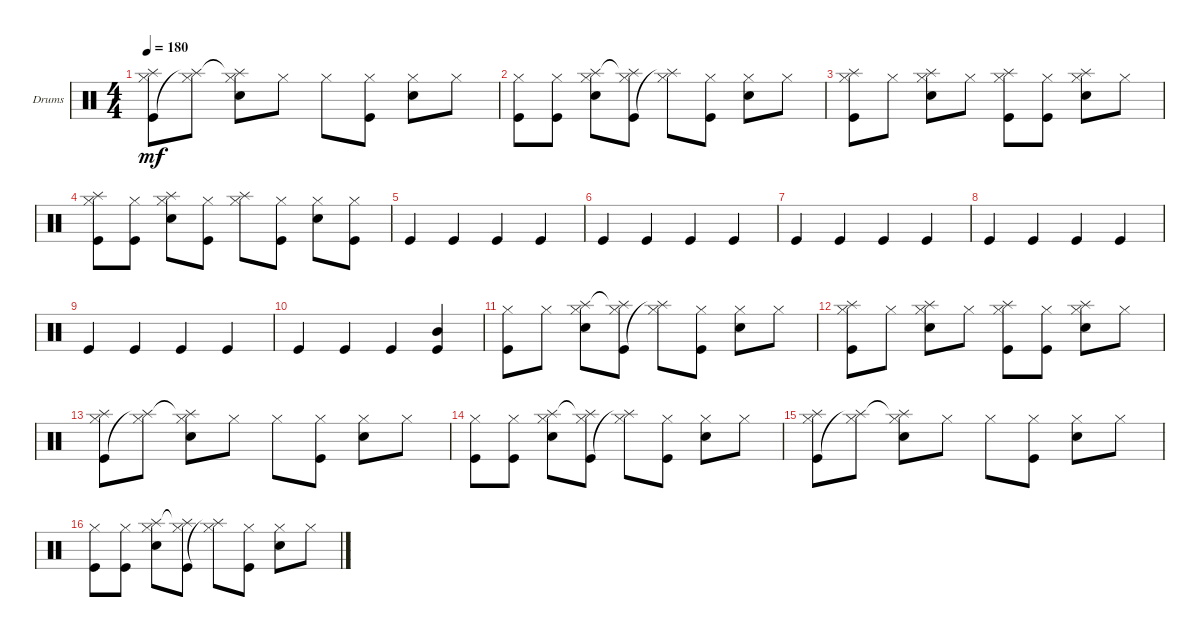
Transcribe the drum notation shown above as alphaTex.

\bracketExtendMode groupsimilarinstruments
\firstSystemTrackNameOrientation horizontal
\otherSystemsTrackNameOrientation horizontal
\track ("Drumkit" "Drums") {instrument percussion}
\staff {score}
\articulation defaults
\ts (4 4)
\tempo 180
\clef neutral
\ks c
("Hi-Hat (closed)" "Kick (hit)" "Splash (hit)").8{dy mf} ("Hi-Hat (closed)" "Splash (hit)"{t}).8 ("Hi-Hat (closed)" "Splash (hit)"{t} "Snare (hit) 2").8 "Hi-Hat (closed)".8 "Hi-Hat (closed)".8 ("Hi-Hat (closed)" "Kick (hit)").8 ("Hi-Hat (closed)" "Snare (hit) 2").8 "Hi-Hat (closed)".8 |
("Hi-Hat (closed)" "Kick (hit)").8 ("Hi-Hat (closed)" "Kick (hit)").8 ("Hi-Hat (closed)" "Snare (hit) 2" "Splash (hit)").8 ("Hi-Hat (closed)" "Kick (hit)" "Splash (hit)"{t}).8 ("Hi-Hat (closed)" "Splash (hit)"{t}).8 ("Hi-Hat (closed)" "Kick (hit)").8 ("Hi-Hat (closed)" "Snare (hit) 2").8 "Hi-Hat (closed)".8 |
("Hi-Hat (closed)" "Kick (hit)" "Splash (hit)").8 "Hi-Hat (closed)".8 ("Hi-Hat (closed)" "Snare (hit) 2" "Splash (hit)").8 "Hi-Hat (closed)".8 ("Hi-Hat (closed)" "Kick (hit)" "Splash (hit)").8 ("Hi-Hat (closed)" "Kick (hit)").8 ("Hi-Hat (closed)" "Snare (hit) 2" "Splash (hit)").8 "Hi-Hat (closed)".8 |
("Hi-Hat (closed)" "Kick (hit)" "Splash (hit)").8 ("Hi-Hat (closed)" "Kick (hit)").8 ("Hi-Hat (closed)" "Snare (hit) 2" "Splash (hit)").8 ("Hi-Hat (closed)" "Kick (hit)").8 ("Hi-Hat (closed)" "Splash (hit)").8 ("Hi-Hat (closed)" "Kick (hit)").8 ("Hi-Hat (closed)" "Snare (hit) 2").8 ("Hi-Hat (closed)" "Kick (hit)").8 |
"Kick (hit)".4 "Kick (hit)".4 "Kick (hit)".4 "Kick (hit)".4 |
"Kick (hit)".4 "Kick (hit)".4 "Kick (hit)".4 "Kick (hit)".4 |
"Kick (hit)".4 "Kick (hit)".4 "Kick (hit)".4 "Kick (hit)".4 |
"Kick (hit)".4 "Kick (hit)".4 "Kick (hit)".4 "Kick (hit)".4 |
"Kick (hit)".4 "Kick (hit)".4 "Kick (hit)".4 "Kick (hit)".4 |
"Kick (hit)".4 "Kick (hit)".4 "Kick (hit)".4 ("Kick (hit)" "Mid Tom (hit)").4 |
("Hi-Hat (closed)" "Kick (hit)").8 "Hi-Hat (closed)".8 ("Hi-Hat (closed)" "Snare (hit) 2" "Splash (hit)").8 ("Hi-Hat (closed)" "Kick (hit)" "Splash (hit)"{t}).8 ("Hi-Hat (closed)" "Splash (hit)"{t}).8 ("Hi-Hat (closed)" "Kick (hit)").8 ("Hi-Hat (closed)" "Snare (hit) 2").8 "Hi-Hat (closed)".8 |
("Hi-Hat (closed)" "Kick (hit)" "Splash (hit)").8 "Hi-Hat (closed)".8 ("Hi-Hat (closed)" "Snare (hit) 2" "Splash (hit)").8 "Hi-Hat (closed)".8 ("Hi-Hat (closed)" "Kick (hit)" "Splash (hit)").8 ("Hi-Hat (closed)" "Kick (hit)").8 ("Hi-Hat (closed)" "Snare (hit) 2" "Splash (hit)").8 "Hi-Hat (closed)".8 |
("Hi-Hat (closed)" "Kick (hit)" "Splash (hit)").8 ("Hi-Hat (closed)" "Splash (hit)"{t}).8 ("Hi-Hat (closed)" "Splash (hit)"{t} "Snare (hit) 2").8 "Hi-Hat (closed)".8 "Hi-Hat (closed)".8 ("Hi-Hat (closed)" "Kick (hit)").8 ("Hi-Hat (closed)" "Snare (hit) 2").8 "Hi-Hat (closed)".8 |
("Hi-Hat (closed)" "Kick (hit)").8 ("Hi-Hat (closed)" "Kick (hit)").8 ("Hi-Hat (closed)" "Snare (hit) 2" "Splash (hit)").8 ("Hi-Hat (closed)" "Kick (hit)" "Splash (hit)"{t}).8 ("Hi-Hat (closed)" "Splash (hit)"{t}).8 ("Hi-Hat (closed)" "Kick (hit)").8 ("Hi-Hat (closed)" "Snare (hit) 2").8 "Hi-Hat (closed)".8 |
("Hi-Hat (closed)" "Kick (hit)" "Splash (hit)").8 ("Hi-Hat (closed)" "Splash (hit)"{t}).8 ("Hi-Hat (closed)" "Splash (hit)"{t} "Snare (hit) 2").8 "Hi-Hat (closed)".8 "Hi-Hat (closed)".8 ("Hi-Hat (closed)" "Kick (hit)").8 ("Hi-Hat (closed)" "Snare (hit) 2").8 "Hi-Hat (closed)".8 |
("Hi-Hat (closed)" "Kick (hit)").8 ("Hi-Hat (closed)" "Kick (hit)").8 ("Hi-Hat (closed)" "Snare (hit) 2" "Splash (hit)").8 ("Hi-Hat (closed)" "Kick (hit)" "Splash (hit)"{t}).8 ("Hi-Hat (closed)" "Splash (hit)"{t}).8 ("Hi-Hat (closed)" "Kick (hit)").8 ("Hi-Hat (closed)" "Snare (hit) 2").8 "Hi-Hat (closed)".8
